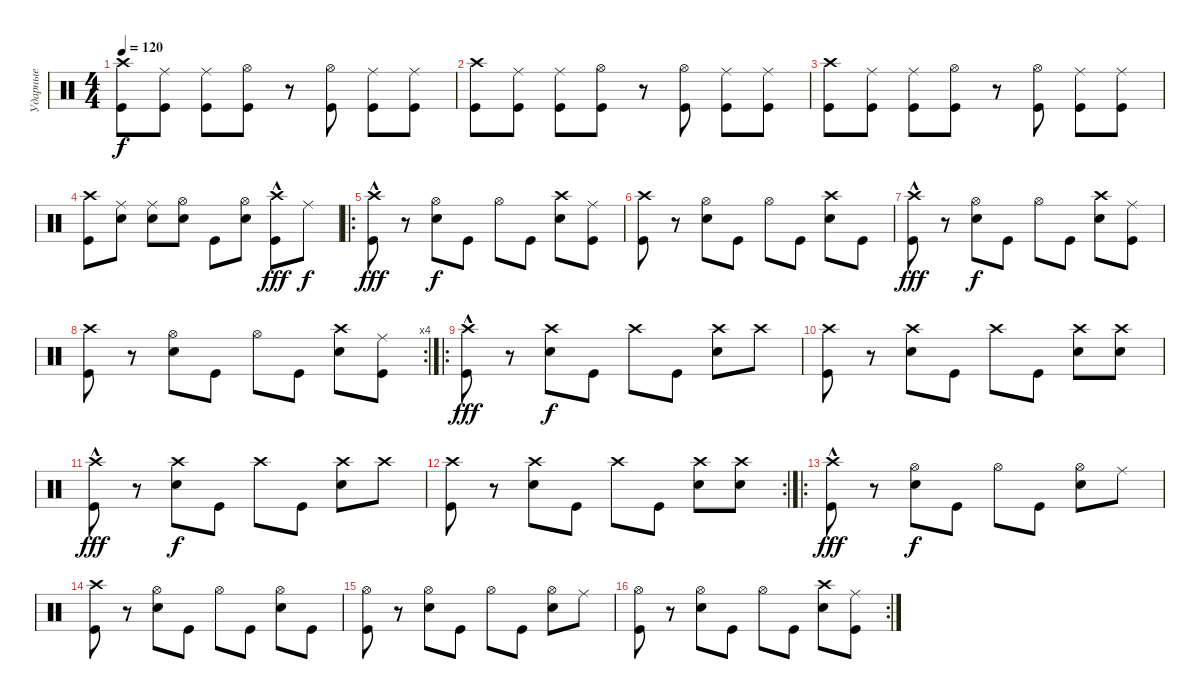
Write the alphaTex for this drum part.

\track ("Ударные" "Ударные") {instrument percussion}
\staff {score}
\articulation defaults
\ts (4 4)
\tempo 120
\clef neutral
\ks c
("Crash high (hit)" "Kick (hit)").8{dy f} ("Ride (middle)" "Kick (hit)").8 ("Ride (middle)" "Kick (hit)").8 ("Hi-Hat (open)" "Kick (hit)").8 r.8 ("Hi-Hat (open)" "Kick (hit)").8 ("Ride (middle)" "Kick (hit)").8 ("Ride (middle)" "Kick (hit)").8 |
("Crash high (hit)" "Kick (hit)").8 ("Ride (middle)" "Kick (hit)").8 ("Ride (middle)" "Kick (hit)").8 ("Hi-Hat (open)" "Kick (hit)").8 r.8 ("Hi-Hat (open)" "Kick (hit)").8 ("Ride (middle)" "Kick (hit)").8 ("Ride (middle)" "Kick (hit)").8 |
("Crash high (hit)" "Kick (hit)").8 ("Ride (middle)" "Kick (hit)").8 ("Ride (middle)" "Kick (hit)").8 ("Hi-Hat (open)" "Kick (hit)").8 r.8 ("Hi-Hat (open)" "Kick (hit)").8 ("Ride (middle)" "Kick (hit)").8 ("Ride (middle)" "Kick (hit)").8 |
("Crash high (hit)" "Kick (hit)").8 ("Ride (middle)" "Snare (hit) 2").8 ("Ride (middle)" "Snare (hit) 2").8 ("Hi-Hat (open)" "Snare (hit) 2").8 "Kick (hit)".8 ("Hi-Hat (open)" "Snare (hit) 2").8 ("Crash high (hit)"{hac} "Kick (hit)").8{dy fff} "Ride (middle)".8{dy f} |
\ro
("Kick (hit)" "Crash high (hit)"{hac}).8{dy fff} r.8 ("Hi-Hat (open)" "Snare (hit) 2").8{dy f} "Kick (hit)".8 "Hi-Hat (open)".8 "Kick (hit)".8 ("Snare (hit) 2" "Crash high (hit)").8 ("Ride (middle)" "Kick (hit)").8 |
("Kick (hit)" "Crash high (hit)").8 r.8 ("Snare (hit) 2" "Hi-Hat (open)").8 "Kick (hit)".8 "Hi-Hat (open)".8 "Kick (hit)".8 ("Snare (hit) 2" "Crash high (hit)").8 "Kick (hit)".8 |
("Kick (hit)" "Crash high (hit)"{hac}).8{dy fff} r.8 ("Hi-Hat (open)" "Snare (hit) 2").8{dy f} "Kick (hit)".8 "Hi-Hat (open)".8 "Kick (hit)".8 ("Snare (hit) 2" "Crash high (hit)").8 ("Ride (middle)" "Kick (hit)").8 |
\rc 4
("Kick (hit)" "Crash high (hit)").8 r.8 ("Snare (hit) 2" "Hi-Hat (open)").8 "Kick (hit)".8 "Hi-Hat (open)".8 "Kick (hit)".8 ("Snare (hit) 2" "Crash high (hit)").8 ("Kick (hit)" "Ride (middle)").8 |
\ro
("Kick (hit)" "Crash high (hit)"{hac}).8{dy fff} r.8 ("Crash high (hit)" "Snare (hit) 2").8{dy f} "Kick (hit)".8 "Crash high (hit)".8 "Kick (hit)".8 ("Snare (hit) 2" "Crash high (hit)").8 "Crash high (hit)".8 |
("Kick (hit)" "Crash high (hit)").8 r.8 ("Snare (hit) 2" "Crash high (hit)").8 "Kick (hit)".8 "Crash high (hit)".8 "Kick (hit)".8 ("Snare (hit) 2" "Crash high (hit)").8 ("Snare (hit) 2" "Crash high (hit)").8 |
("Kick (hit)" "Crash high (hit)"{hac}).8{dy fff} r.8 ("Crash high (hit)" "Snare (hit) 2").8{dy f} "Kick (hit)".8 "Crash high (hit)".8 "Kick (hit)".8 ("Snare (hit) 2" "Crash high (hit)").8 "Crash high (hit)".8 |
\rc 2
("Kick (hit)" "Crash high (hit)").8 r.8 ("Snare (hit) 2" "Crash high (hit)").8 "Kick (hit)".8 "Crash high (hit)".8 "Kick (hit)".8 ("Snare (hit) 2" "Crash high (hit)").8 ("Snare (hit) 2" "Crash high (hit)").8 |
\ro
("Kick (hit)" "Crash high (hit)"{hac}).8{dy fff} r.8 ("Hi-Hat (open)" "Snare (hit) 2").8{dy f} "Kick (hit)".8 "Hi-Hat (open)".8 "Kick (hit)".8 ("Snare (hit) 2" "Hi-Hat (open)").8 "Ride (middle)".8 |
("Kick (hit)" "Crash high (hit)").8 r.8 ("Snare (hit) 2" "Hi-Hat (open)").8 "Kick (hit)".8 "Hi-Hat (open)".8 "Kick (hit)".8 ("Snare (hit) 2" "Hi-Hat (open)").8 "Kick (hit)".8 |
("Kick (hit)" "Hi-Hat (open)").8 r.8 ("Hi-Hat (open)" "Snare (hit) 2").8 "Kick (hit)".8 "Hi-Hat (open)".8 "Kick (hit)".8 ("Snare (hit) 2" "Hi-Hat (open)").8 "Ride (middle)".8 |
\rc 2
("Kick (hit)" "Hi-Hat (open)").8 r.8 ("Snare (hit) 2" "Hi-Hat (open)").8 "Kick (hit)".8 "Hi-Hat (open)".8 "Kick (hit)".8 ("Snare (hit) 2" "Crash high (hit)").8 ("Ride (middle)" "Kick (hit)").8
